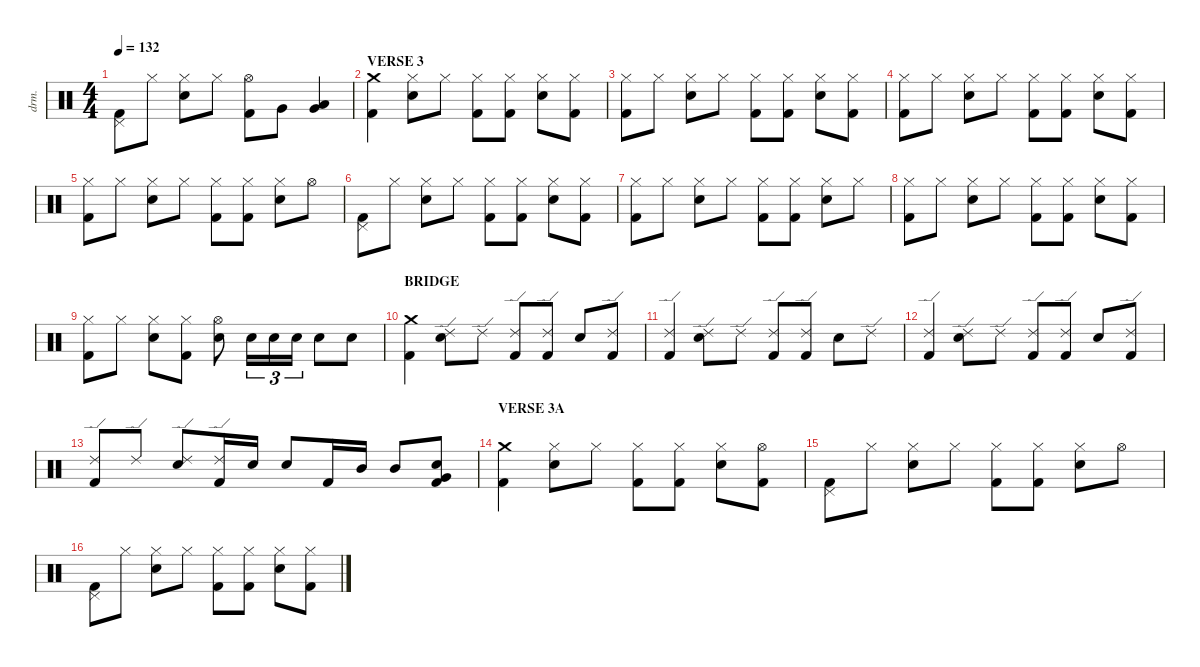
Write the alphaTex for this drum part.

\defaultSystemsLayout 4
\hideDynamics
\bracketExtendMode nobrackets
\otherSystemsTrackNameOrientation horizontal
\track ("Drums" "drm.") {instrument percussion}
\staff {score}
\articulation defaults
\ts (4 4)
\tempo 132
\clef neutral
\ks c
("Pedal Hi-Hat (hit)" "Kick (hit) 2").8{dy f beam Down} "Hi-Hat (closed)".8{dy mf beam Down} ("Hi-Hat (closed)" "Snare (hit) 2").8{dy f beam Down} "Hi-Hat (closed)".8{dy mf beam Down} ("Hi-Hat (open)" "Kick (hit) 2").8{dy f beam Down} "Very Low Tom (hit)".8{dy fff beam Down} ("Low Tom (hit)" "Very Low Tom (hit)").4{beam Up} |
\section ("" "VERSE 3")
("Crash medium (hit)" "Kick (hit) 2").4{dy f beam Down} ("Hi-Hat (closed)" "Snare (hit) 2").8{dy ff beam Down} "Hi-Hat (closed)".8{dy mf beam Down} ("Hi-Hat (closed)" "Kick (hit) 2").8{dy f beam Down} ("Hi-Hat (closed)" "Kick (hit) 2").8{dy mf beam Down} ("Hi-Hat (closed)" "Snare (hit) 2").8{beam Down} ("Hi-Hat (closed)" "Kick (hit) 2").8{dy f beam Down} |
("Hi-Hat (closed)" "Kick (hit) 2").8{dy ff beam Down} "Hi-Hat (closed)".8{dy mf beam Down} ("Hi-Hat (closed)" "Snare (hit) 2").8{dy f beam Down} "Hi-Hat (closed)".8{dy mf beam Down} ("Hi-Hat (closed)" "Kick (hit) 2").8{beam Down} ("Hi-Hat (closed)" "Kick (hit) 2").8{beam Down} ("Hi-Hat (closed)" "Snare (hit) 2").8{dy f beam Down} ("Hi-Hat (closed)" "Kick (hit) 2").8{dy mf beam Down} |
("Hi-Hat (closed)" "Kick (hit) 2").8{dy f beam Down} "Hi-Hat (closed)".8{beam Down} ("Hi-Hat (closed)" "Snare (hit) 2").8{beam Down} "Hi-Hat (closed)".8{dy mf beam Down} ("Hi-Hat (closed)" "Kick (hit) 2").8{dy f beam Down} ("Hi-Hat (closed)" "Kick (hit) 2").8{dy mf beam Down} ("Hi-Hat (closed)" "Snare (hit) 2").8{dy f beam Down} ("Hi-Hat (closed)" "Kick (hit) 2").8{dy mf beam Down} |
("Hi-Hat (closed)" "Kick (hit) 2").8{dy ff beam Down} "Hi-Hat (closed)".8{dy mf beam Down} ("Hi-Hat (closed)" "Snare (hit) 2").8{dy f beam Down} "Hi-Hat (closed)".8{dy mf beam Down} ("Hi-Hat (closed)" "Kick (hit) 2").8{beam Down} ("Hi-Hat (closed)" "Kick (hit) 2").8{beam Down} ("Hi-Hat (closed)" "Snare (hit) 2").8{dy f beam Down} "Hi-Hat (open)".8{dy mf beam Down} |
("Pedal Hi-Hat (hit)" "Kick (hit) 2").8{dy f beam Down} "Hi-Hat (closed)".8{dy mf beam Down} ("Hi-Hat (closed)" "Snare (hit) 2").8{dy ff beam Down} "Hi-Hat (closed)".8{dy mf beam Down} ("Hi-Hat (closed)" "Kick (hit) 2").8{dy f beam Down} ("Hi-Hat (closed)" "Kick (hit) 2").8{dy mf beam Down} ("Hi-Hat (closed)" "Snare (hit) 2").8{beam Down} ("Hi-Hat (closed)" "Kick (hit) 2").8{dy f beam Down} |
("Hi-Hat (closed)" "Kick (hit) 2").8{dy ff beam Down} "Hi-Hat (closed)".8{dy mf beam Down} ("Hi-Hat (closed)" "Snare (hit) 2").8{dy f beam Down} "Hi-Hat (closed)".8{dy mf beam Down} ("Hi-Hat (closed)" "Kick (hit) 2").8{beam Down} ("Hi-Hat (closed)" "Kick (hit) 2").8{beam Down} ("Hi-Hat (closed)" "Snare (hit) 2").8{dy f beam Down} "Hi-Hat (closed)".8{dy mf beam Down} |
("Hi-Hat (closed)" "Kick (hit) 2").8{dy f beam Down} "Hi-Hat (closed)".8{beam Down} ("Hi-Hat (closed)" "Snare (hit) 2").8{beam Down} "Hi-Hat (closed)".8{dy mf beam Down} ("Hi-Hat (closed)" "Kick (hit) 2").8{dy f beam Down} ("Hi-Hat (closed)" "Kick (hit) 2").8{dy mf beam Down} ("Hi-Hat (closed)" "Snare (hit) 2").8{dy f beam Down} ("Hi-Hat (closed)" "Kick (hit) 2").8{dy mf beam Down} |
("Hi-Hat (closed)" "Kick (hit) 2").8{dy ff beam Down} "Hi-Hat (closed)".8{dy mf beam Down} ("Hi-Hat (closed)" "Snare (hit) 2").8{dy f beam Down} ("Hi-Hat (closed)" "Kick (hit) 2").8{dy mf beam Down} ("Hi-Hat (open)" "Snare (hit) 2").8{dy f beam Down} "Snare (hit) 2".16{tu (3 2) dy mf beam Down} "Snare (hit) 2".16{tu (3 2) beam Down} "Snare (hit) 2".16{tu (3 2) dy mp beam Down} "Snare (hit) 2".8{dy fff beam Down} "Snare (hit) 2".8{dy ff beam Down} |
\section ("" "BRIDGE")
("Crash medium (hit)" "Kick (hit) 2").4{dy fff beam Down} ("Ride (edge) 2" "Snare (hit) 2").8{dy ff beam Down} "Ride (edge) 2".8{dy mf beam Down} ("Ride (edge) 2" "Kick (hit) 2").8{dy ff beam Up} ("Ride (edge) 2" "Kick (hit) 2").8{dy f beam Up} "Snare (hit) 2".8{beam Up} ("Ride (edge) 2" "Kick (hit) 2").8{dy mf beam Up} |
("Ride (edge) 2" "Kick (hit) 2").4{dy ff beam Up} ("Ride (edge) 2" "Snare (hit) 2").8{dy f beam Down} "Ride (edge) 2".8{dy mf beam Down} ("Ride (edge) 2" "Kick (hit) 2").8{dy f beam Up} ("Ride (edge) 2" "Kick (hit) 2").8{dy ff beam Up} "Snare (hit) 2".8{dy f beam Down} "Ride (edge) 2".8{beam Down} |
("Ride (edge) 2" "Kick (hit) 2").4{beam Up} ("Ride (edge) 2" "Snare (hit) 2").8{dy ff beam Down} "Ride (edge) 2".8{dy mf beam Down} ("Ride (edge) 2" "Kick (hit) 2").8{beam Up} ("Ride (edge) 2" "Kick (hit) 2").8{dy f beam Up} "Snare (hit) 2".8{beam Up} ("Ride (edge) 2" "Kick (hit) 2").8{dy mf beam Up} |
("Ride (edge) 2" "Kick (hit) 2").8{dy ff beam Up} "Ride (edge) 2".8{dy mf beam Up} ("Ride (edge) 2" "Snare (hit) 2").8{dy f beam Up} ("Ride (edge) 2" "Kick (hit) 2").16{dy mf beam Up} "Snare (hit) 2".16{dy ff beam Up} "Snare (hit) 2".8{dy fff beam Up} "Kick (hit) 2".16{dy f beam Up} "Mid Tom (hit)".16{dy fff beam Up} "Mid Tom (hit)".8{beam Up} ("Snare (hit) 2" "Very Low Tom (hit)" "Kick (hit) 2").8{dy f beam Up} |
\section ("" "VERSE 3A")
("Crash medium (hit)" "Kick (hit) 2").4{dy ff beam Down} ("Hi-Hat (closed)" "Snare (hit) 2").8{beam Down} "Hi-Hat (closed)".8{dy mf beam Down} ("Hi-Hat (closed)" "Kick (hit) 2").8{dy f beam Down} ("Hi-Hat (closed)" "Kick (hit) 2").8{dy mf beam Down} ("Hi-Hat (closed)" "Snare (hit) 2").8{beam Down} ("Hi-Hat (open)" "Kick (hit) 2").8{dy f beam Down} |
("Pedal Hi-Hat (hit)" "Kick (hit) 2").8{beam Down} "Hi-Hat (closed)".8{dy mf beam Down} ("Hi-Hat (closed)" "Snare (hit) 2").8{dy f beam Down} "Hi-Hat (closed)".8{dy mf beam Down} ("Hi-Hat (closed)" "Kick (hit) 2").8{beam Down} ("Hi-Hat (closed)" "Kick (hit) 2").8{beam Down} ("Hi-Hat (closed)" "Snare (hit) 2").8{dy f beam Down} "Hi-Hat (open)".8{dy mf beam Down} |
("Pedal Hi-Hat (hit)" "Kick (hit) 2").8{dy f beam Down} "Hi-Hat (closed)".8{beam Down} ("Hi-Hat (closed)" "Snare (hit) 2").8{beam Down} "Hi-Hat (closed)".8{dy mf beam Down} ("Hi-Hat (closed)" "Kick (hit) 2").8{dy f beam Down} ("Hi-Hat (closed)" "Kick (hit) 2").8{dy mf beam Down} ("Hi-Hat (closed)" "Snare (hit) 2").8{dy f beam Down} ("Hi-Hat (closed)" "Kick (hit) 2").8{dy mf beam Down}
